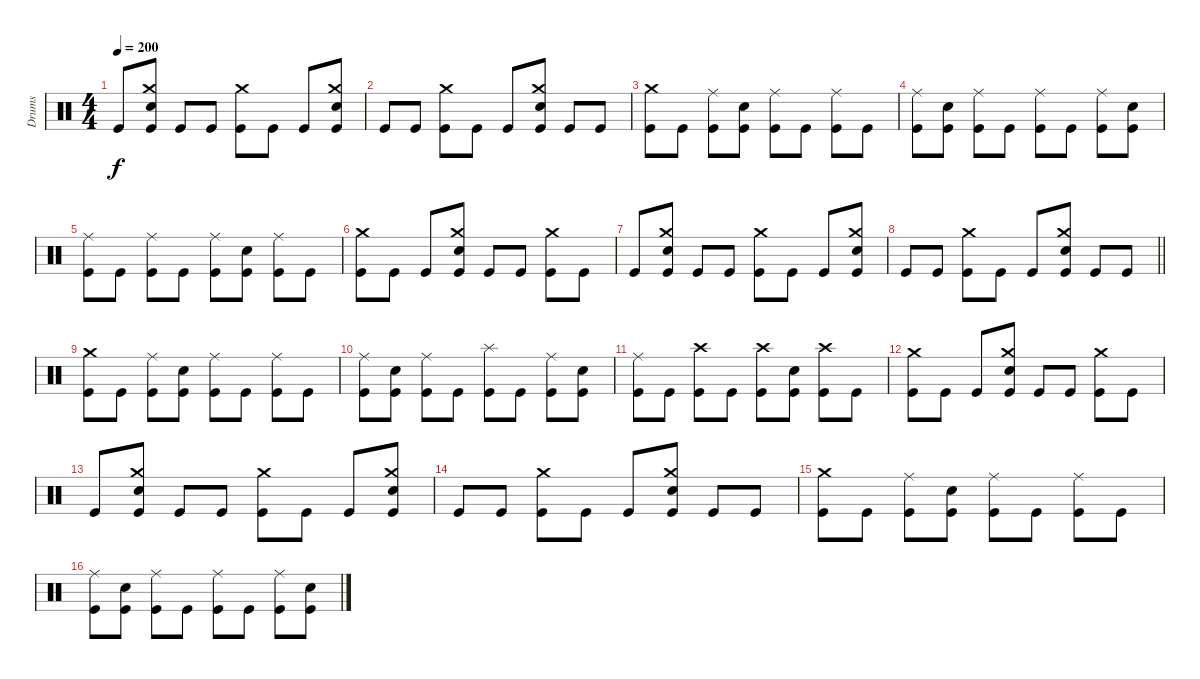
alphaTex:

\track ("Drums" "Drums") {instrument percussion}
\staff {score}
\articulation defaults
\ts (4 4)
\tempo 200
\clef neutral
\ks c "Kick (hit)".8{dy f}
("Crash medium (hit)" "Snare (hit) 2" "Kick (hit)").8 "Kick (hit)".8 "Kick (hit)".8 ("Crash medium (hit)" "Kick (hit)").8 "Kick (hit)".8 "Kick (hit)".8 ("Crash medium (hit)" "Snare (hit) 2" "Kick (hit)").8 |
"Kick (hit)".8 "Kick (hit)".8 ("Crash medium (hit)" "Kick (hit)").8 "Kick (hit)".8 "Kick (hit)".8 ("Crash medium (hit)" "Snare (hit) 2" "Kick (hit)").8 "Kick (hit)".8 "Kick (hit)".8 |
("Crash medium (hit)" "Kick (hit)").8 "Kick (hit)".8 ("Ride (middle)" "Kick (hit)").8 ("Snare (hit) 2" "Kick (hit)").8 ("Ride (middle)" "Kick (hit)").8 "Kick (hit)".8 ("Ride (middle)" "Kick (hit)").8 "Kick (hit)".8 |
("Ride (middle)" "Kick (hit)").8 ("Snare (hit) 2" "Kick (hit)").8 ("Ride (middle)" "Kick (hit)").8 "Kick (hit)".8 ("Ride (middle)" "Kick (hit)").8 "Kick (hit)".8 ("Ride (middle)" "Kick (hit)").8 ("Snare (hit) 2" "Kick (hit)").8 |
("Ride (middle)" "Kick (hit)").8 "Kick (hit)".8 ("Ride (middle)" "Kick (hit)").8 "Kick (hit)".8 ("Ride (middle)" "Kick (hit)").8 ("Snare (hit) 2" "Kick (hit)").8 ("Ride (middle)" "Kick (hit)").8 "Kick (hit)".8 |
("Crash medium (hit)" "Kick (hit)").8 "Kick (hit)".8 "Kick (hit)".8 ("Crash medium (hit)" "Snare (hit) 2" "Kick (hit)").8 "Kick (hit)".8 "Kick (hit)".8 ("Crash medium (hit)" "Kick (hit)").8 "Kick (hit)".8 |
"Kick (hit)".8 ("Crash medium (hit)" "Snare (hit) 2" "Kick (hit)").8 "Kick (hit)".8 "Kick (hit)".8 ("Crash medium (hit)" "Kick (hit)").8 "Kick (hit)".8 "Kick (hit)".8 ("Crash medium (hit)" "Snare (hit) 2" "Kick (hit)").8 |
\barLineRight lightlight "Kick (hit)".8 "Kick (hit)".8
("Crash medium (hit)" "Kick (hit)").8 "Kick (hit)".8 "Kick (hit)".8 ("Crash medium (hit)" "Snare (hit) 2" "Kick (hit)").8 "Kick (hit)".8 "Kick (hit)".8 |
("Crash medium (hit)" "Kick (hit)").8 "Kick (hit)".8 ("Ride (middle)" "Kick (hit)").8 ("Snare (hit) 2" "Kick (hit)").8 ("Ride (middle)" "Kick (hit)").8 "Kick (hit)".8 ("Ride (middle)" "Kick (hit)").8 "Kick (hit)".8 |
("Ride (middle)" "Kick (hit)").8 ("Snare (hit) 2" "Kick (hit)").8 ("Ride (middle)" "Kick (hit)").8 "Kick (hit)".8 ("Splash (hit)" "Kick (hit)").8 "Kick (hit)".8 ("Ride (middle)" "Kick (hit)").8 ("Snare (hit) 2" "Kick (hit)").8 |
("Ride (middle)" "Kick (hit)").8 "Kick (hit)".8 ("Crash high (hit)" "Kick (hit)").8 "Kick (hit)".8 ("Crash high (hit)" "Kick (hit)").8 ("Snare (hit) 2" "Kick (hit)").8 ("Crash high (hit)" "Kick (hit)").8 "Kick (hit)".8 |
("Crash medium (hit)" "Kick (hit)").8 "Kick (hit)".8 "Kick (hit)".8 ("Crash medium (hit)" "Snare (hit) 2" "Kick (hit)").8 "Kick (hit)".8 "Kick (hit)".8 ("Crash medium (hit)" "Kick (hit)").8 "Kick (hit)".8 |
"Kick (hit)".8 ("Crash medium (hit)" "Snare (hit) 2" "Kick (hit)").8 "Kick (hit)".8 "Kick (hit)".8 ("Crash medium (hit)" "Kick (hit)").8 "Kick (hit)".8 "Kick (hit)".8 ("Crash medium (hit)" "Snare (hit) 2" "Kick (hit)").8 |
"Kick (hit)".8 "Kick (hit)".8 ("Crash medium (hit)" "Kick (hit)").8 "Kick (hit)".8 "Kick (hit)".8 ("Crash medium (hit)" "Snare (hit) 2" "Kick (hit)").8 "Kick (hit)".8 "Kick (hit)".8 |
("Crash medium (hit)" "Kick (hit)").8 "Kick (hit)".8 ("Ride (middle)" "Kick (hit)").8 ("Snare (hit) 2" "Kick (hit)").8 ("Ride (middle)" "Kick (hit)").8 "Kick (hit)".8 ("Ride (middle)" "Kick (hit)").8 "Kick (hit)".8 |
("Ride (middle)" "Kick (hit)").8 ("Snare (hit) 2" "Kick (hit)").8 ("Ride (middle)" "Kick (hit)").8 "Kick (hit)".8 ("Ride (middle)" "Kick (hit)").8 "Kick (hit)".8 ("Ride (middle)" "Kick (hit)").8 ("Snare (hit) 2" "Kick (hit)").8
